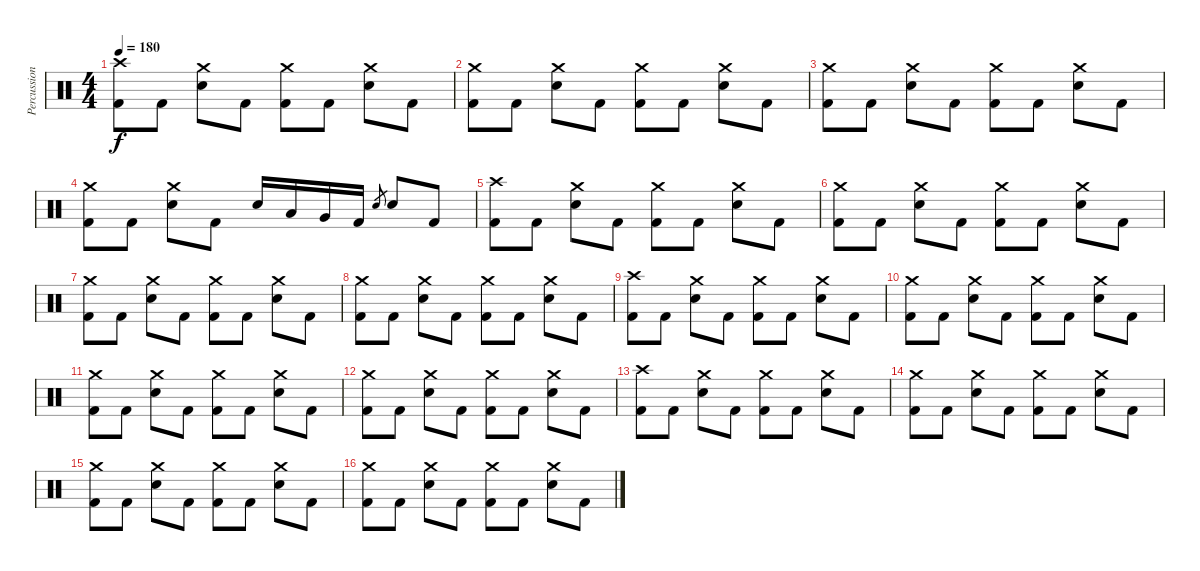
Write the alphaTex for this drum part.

\track ("Percussion" "Percussion") {instrument percussion}
\staff {score}
\articulation defaults
\ts (4 4)
\tempo 180
\clef neutral
\ks c
("Crash high (hit)" "Kick (hit) 2").8{dy f} "Kick (hit) 2".8 ("Crash medium (hit)" "Electric Snare (hit)").8 "Kick (hit) 2".8 ("Crash medium (hit)" "Kick (hit) 2").8 "Kick (hit) 2".8 ("Crash medium (hit)" "Electric Snare (hit)").8 "Kick (hit) 2".8 |
("Crash medium (hit)" "Kick (hit) 2").8 "Kick (hit) 2".8 ("Crash medium (hit)" "Electric Snare (hit)").8 "Kick (hit) 2".8 ("Crash medium (hit)" "Kick (hit) 2").8 "Kick (hit) 2".8 ("Crash medium (hit)" "Electric Snare (hit)").8 "Kick (hit) 2".8 |
("Crash medium (hit)" "Kick (hit) 2").8 "Kick (hit) 2".8 ("Crash medium (hit)" "Electric Snare (hit)").8 "Kick (hit) 2".8 ("Crash medium (hit)" "Kick (hit) 2").8 "Kick (hit) 2".8 ("Crash medium (hit)" "Electric Snare (hit)").8 "Kick (hit) 2".8 |
("Crash medium (hit)" "Kick (hit) 2").8 "Kick (hit) 2".8 ("Crash medium (hit)" "Electric Snare (hit)").8 "Kick (hit) 2".8 "Electric Snare (hit)".16 "Low Tom (hit)".16 "Very Low Tom (hit)".16 "Kick (hit) 2".16 "Electric Snare (hit)".8{gr} "Electric Snare (hit)".8 "Kick (hit) 2".8 |
("Crash high (hit)" "Kick (hit) 2").8 "Kick (hit) 2".8 ("Crash medium (hit)" "Electric Snare (hit)").8 "Kick (hit) 2".8 ("Crash medium (hit)" "Kick (hit) 2").8 "Kick (hit) 2".8 ("Crash medium (hit)" "Electric Snare (hit)").8 "Kick (hit) 2".8 |
("Crash medium (hit)" "Kick (hit) 2").8 "Kick (hit) 2".8 ("Crash medium (hit)" "Electric Snare (hit)").8 "Kick (hit) 2".8 ("Crash medium (hit)" "Kick (hit) 2").8 "Kick (hit) 2".8 ("Crash medium (hit)" "Electric Snare (hit)").8 "Kick (hit) 2".8 |
("Crash medium (hit)" "Kick (hit) 2").8 "Kick (hit) 2".8 ("Crash medium (hit)" "Electric Snare (hit)").8 "Kick (hit) 2".8 ("Crash medium (hit)" "Kick (hit) 2").8 "Kick (hit) 2".8 ("Crash medium (hit)" "Electric Snare (hit)").8 "Kick (hit) 2".8 |
("Crash medium (hit)" "Kick (hit) 2").8 "Kick (hit) 2".8 ("Crash medium (hit)" "Electric Snare (hit)").8 "Kick (hit) 2".8 ("Crash medium (hit)" "Kick (hit) 2").8 "Kick (hit) 2".8 ("Crash medium (hit)" "Electric Snare (hit)").8 "Kick (hit) 2".8 |
("Crash high (hit)" "Kick (hit) 2").8 "Kick (hit) 2".8 ("Crash medium (hit)" "Electric Snare (hit)").8 "Kick (hit) 2".8 ("Crash medium (hit)" "Kick (hit) 2").8 "Kick (hit) 2".8 ("Crash medium (hit)" "Electric Snare (hit)").8 "Kick (hit) 2".8 |
("Crash medium (hit)" "Kick (hit) 2").8 "Kick (hit) 2".8 ("Crash medium (hit)" "Electric Snare (hit)").8 "Kick (hit) 2".8 ("Crash medium (hit)" "Kick (hit) 2").8 "Kick (hit) 2".8 ("Crash medium (hit)" "Electric Snare (hit)").8 "Kick (hit) 2".8 |
("Crash medium (hit)" "Kick (hit) 2").8 "Kick (hit) 2".8 ("Crash medium (hit)" "Electric Snare (hit)").8 "Kick (hit) 2".8 ("Crash medium (hit)" "Kick (hit) 2").8 "Kick (hit) 2".8 ("Crash medium (hit)" "Electric Snare (hit)").8 "Kick (hit) 2".8 |
("Crash medium (hit)" "Kick (hit) 2").8 "Kick (hit) 2".8 ("Crash medium (hit)" "Electric Snare (hit)").8 "Kick (hit) 2".8 ("Crash medium (hit)" "Kick (hit) 2").8 "Kick (hit) 2".8 ("Crash medium (hit)" "Electric Snare (hit)").8 "Kick (hit) 2".8 |
("Crash high (hit)" "Kick (hit) 2").8 "Kick (hit) 2".8 ("Crash medium (hit)" "Electric Snare (hit)").8 "Kick (hit) 2".8 ("Crash medium (hit)" "Kick (hit) 2").8 "Kick (hit) 2".8 ("Crash medium (hit)" "Electric Snare (hit)").8 "Kick (hit) 2".8 |
("Crash medium (hit)" "Kick (hit) 2").8 "Kick (hit) 2".8 ("Crash medium (hit)" "Electric Snare (hit)").8 "Kick (hit) 2".8 ("Crash medium (hit)" "Kick (hit) 2").8 "Kick (hit) 2".8 ("Crash medium (hit)" "Electric Snare (hit)").8 "Kick (hit) 2".8 |
("Crash medium (hit)" "Kick (hit) 2").8 "Kick (hit) 2".8 ("Crash medium (hit)" "Electric Snare (hit)").8 "Kick (hit) 2".8 ("Crash medium (hit)" "Kick (hit) 2").8 "Kick (hit) 2".8 ("Crash medium (hit)" "Electric Snare (hit)").8 "Kick (hit) 2".8 |
("Crash medium (hit)" "Kick (hit) 2").8 "Kick (hit) 2".8 ("Crash medium (hit)" "Electric Snare (hit)").8 "Kick (hit) 2".8 ("Crash medium (hit)" "Kick (hit) 2").8 "Kick (hit) 2".8 ("Crash medium (hit)" "Electric Snare (hit)").8 "Kick (hit) 2".8
